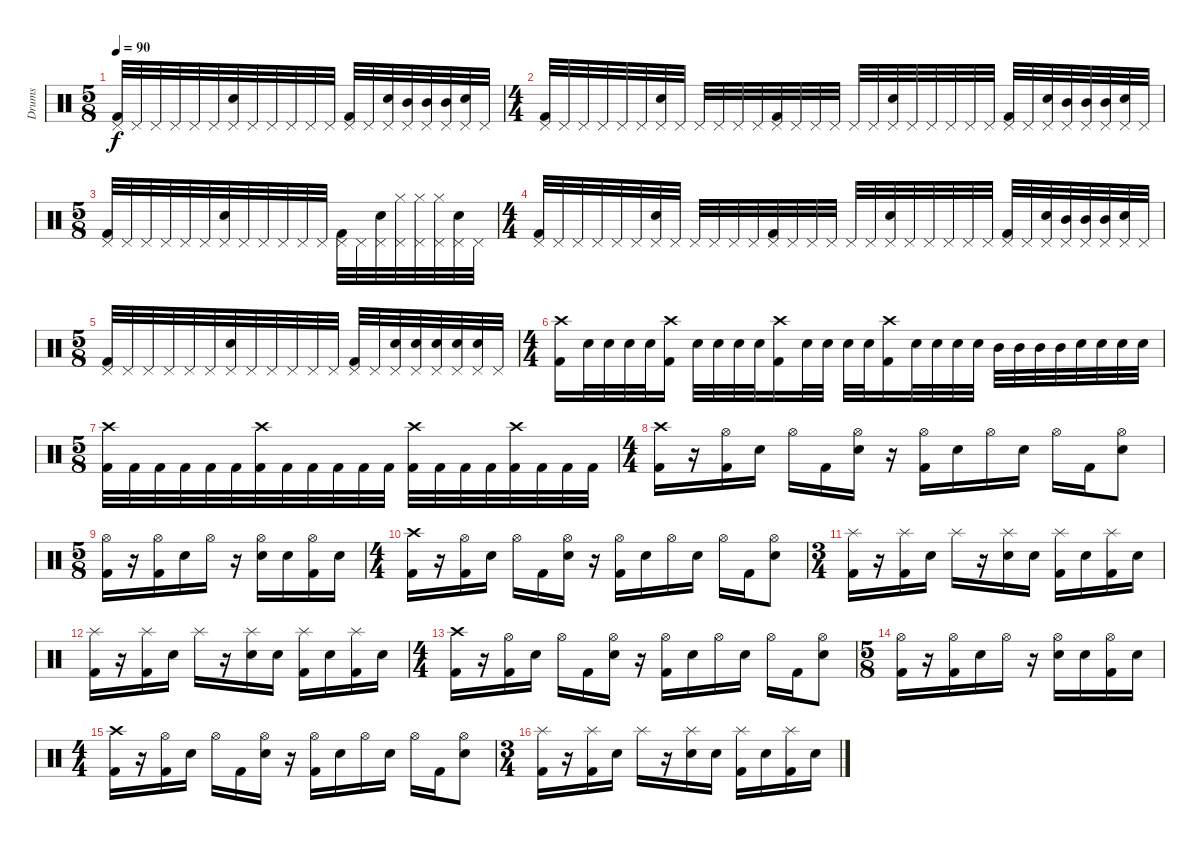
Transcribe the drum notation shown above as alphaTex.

\track ("Drums" "Drums") {instrument percussion}
\staff {score}
\articulation defaults
\ts (5 8)
\tempo 90
\clef neutral
\ks c
("Pedal Hi-Hat (hit)" "Kick (hit) 2").32{dy f} "Pedal Hi-Hat (hit)".32 "Pedal Hi-Hat (hit)".32 "Pedal Hi-Hat (hit)".32 "Pedal Hi-Hat (hit)".32 "Pedal Hi-Hat (hit)".32 ("Pedal Hi-Hat (hit)" "Electric Snare (hit)").32 "Pedal Hi-Hat (hit)".32 "Pedal Hi-Hat (hit)".32 "Pedal Hi-Hat (hit)".32 "Pedal Hi-Hat (hit)".32 "Pedal Hi-Hat (hit)".32 ("Pedal Hi-Hat (hit)" "Kick (hit) 2").32 "Pedal Hi-Hat (hit)".32 ("Pedal Hi-Hat (hit)" "Electric Snare (hit)").32 ("Pedal Hi-Hat (hit)" "Mid Tom (hit)").32 ("Pedal Hi-Hat (hit)" "Mid Tom (hit)").32 ("Pedal Hi-Hat (hit)" "Mid Tom (hit)").32 ("Pedal Hi-Hat (hit)" "Electric Snare (hit)").32 "Pedal Hi-Hat (hit)".32 |
\ts (4 4)
("Pedal Hi-Hat (hit)" "Kick (hit) 2").32 "Pedal Hi-Hat (hit)".32 "Pedal Hi-Hat (hit)".32 "Pedal Hi-Hat (hit)".32 "Pedal Hi-Hat (hit)".32 "Pedal Hi-Hat (hit)".32 ("Pedal Hi-Hat (hit)" "Electric Snare (hit)").32 "Pedal Hi-Hat (hit)".32 "Pedal Hi-Hat (hit)".32 "Pedal Hi-Hat (hit)".32 "Pedal Hi-Hat (hit)".32 "Pedal Hi-Hat (hit)".32 ("Pedal Hi-Hat (hit)" "Kick (hit) 2").32 "Pedal Hi-Hat (hit)".32 "Pedal Hi-Hat (hit)".32 "Pedal Hi-Hat (hit)".32 "Pedal Hi-Hat (hit)".32 "Pedal Hi-Hat (hit)".32 ("Pedal Hi-Hat (hit)" "Electric Snare (hit)").32 "Pedal Hi-Hat (hit)".32 "Pedal Hi-Hat (hit)".32 "Pedal Hi-Hat (hit)".32 "Pedal Hi-Hat (hit)".32 "Pedal Hi-Hat (hit)".32 ("Pedal Hi-Hat (hit)" "Kick (hit) 2").32 "Pedal Hi-Hat (hit)".32 ("Pedal Hi-Hat (hit)" "Electric Snare (hit)").32 ("Pedal Hi-Hat (hit)" "Mid Tom (hit)").32 ("Pedal Hi-Hat (hit)" "Mid Tom (hit)").32 ("Pedal Hi-Hat (hit)" "Mid Tom (hit)").32 ("Pedal Hi-Hat (hit)" "Electric Snare (hit)").32 "Pedal Hi-Hat (hit)".32 |
\ts (5 8)
("Pedal Hi-Hat (hit)" "Kick (hit) 2").32 "Pedal Hi-Hat (hit)".32 "Pedal Hi-Hat (hit)".32 "Pedal Hi-Hat (hit)".32 "Pedal Hi-Hat (hit)".32 "Pedal Hi-Hat (hit)".32 ("Pedal Hi-Hat (hit)" "Electric Snare (hit)").32 "Pedal Hi-Hat (hit)".32 "Pedal Hi-Hat (hit)".32 "Pedal Hi-Hat (hit)".32 "Pedal Hi-Hat (hit)".32 "Pedal Hi-Hat (hit)".32 ("Pedal Hi-Hat (hit)" "Kick (hit) 2").32 "Pedal Hi-Hat (hit)".32 ("Pedal Hi-Hat (hit)" "Electric Snare (hit)").32 ("Pedal Hi-Hat (hit)" "Hi-Hat (closed)").32 ("Pedal Hi-Hat (hit)" "Hi-Hat (closed)").32 ("Pedal Hi-Hat (hit)" "Hi-Hat (closed)").32 ("Pedal Hi-Hat (hit)" "Electric Snare (hit)").32 "Pedal Hi-Hat (hit)".32 |
\ts (4 4)
("Pedal Hi-Hat (hit)" "Kick (hit) 2").32 "Pedal Hi-Hat (hit)".32 "Pedal Hi-Hat (hit)".32 "Pedal Hi-Hat (hit)".32 "Pedal Hi-Hat (hit)".32 "Pedal Hi-Hat (hit)".32 ("Pedal Hi-Hat (hit)" "Electric Snare (hit)").32 "Pedal Hi-Hat (hit)".32 "Pedal Hi-Hat (hit)".32 "Pedal Hi-Hat (hit)".32 "Pedal Hi-Hat (hit)".32 "Pedal Hi-Hat (hit)".32 ("Pedal Hi-Hat (hit)" "Kick (hit) 2").32 "Pedal Hi-Hat (hit)".32 "Pedal Hi-Hat (hit)".32 "Pedal Hi-Hat (hit)".32 "Pedal Hi-Hat (hit)".32 "Pedal Hi-Hat (hit)".32 ("Pedal Hi-Hat (hit)" "Electric Snare (hit)").32 "Pedal Hi-Hat (hit)".32 "Pedal Hi-Hat (hit)".32 "Pedal Hi-Hat (hit)".32 "Pedal Hi-Hat (hit)".32 "Pedal Hi-Hat (hit)".32 ("Pedal Hi-Hat (hit)" "Kick (hit) 2").32 "Pedal Hi-Hat (hit)".32 ("Pedal Hi-Hat (hit)" "Electric Snare (hit)").32 ("Pedal Hi-Hat (hit)" "Mid Tom (hit)").32 ("Pedal Hi-Hat (hit)" "Mid Tom (hit)").32 ("Pedal Hi-Hat (hit)" "Mid Tom (hit)").32 ("Pedal Hi-Hat (hit)" "Electric Snare (hit)").32 "Pedal Hi-Hat (hit)".32 |
\ts (5 8)
("Pedal Hi-Hat (hit)" "Kick (hit) 2").32 "Pedal Hi-Hat (hit)".32 "Pedal Hi-Hat (hit)".32 "Pedal Hi-Hat (hit)".32 "Pedal Hi-Hat (hit)".32 "Pedal Hi-Hat (hit)".32 ("Pedal Hi-Hat (hit)" "Electric Snare (hit)").32 "Pedal Hi-Hat (hit)".32 "Pedal Hi-Hat (hit)".32 "Pedal Hi-Hat (hit)".32 "Pedal Hi-Hat (hit)".32 "Pedal Hi-Hat (hit)".32 ("Pedal Hi-Hat (hit)" "Kick (hit) 2").32 "Pedal Hi-Hat (hit)".32 ("Pedal Hi-Hat (hit)" "Electric Snare (hit)").32 ("Pedal Hi-Hat (hit)" "Electric Snare (hit)").32 ("Pedal Hi-Hat (hit)" "Electric Snare (hit)").32 ("Pedal Hi-Hat (hit)" "Electric Snare (hit)").32 ("Pedal Hi-Hat (hit)" "Electric Snare (hit)").32 "Pedal Hi-Hat (hit)".32 |
\ts (4 4)
("Crash high (hit)" "Kick (hit) 2").16 "Electric Snare (hit)".32 "Electric Snare (hit)".32 "Electric Snare (hit)".32 "Electric Snare (hit)".32 ("Crash high (hit)" "Kick (hit) 2").16 "Electric Snare (hit)".32 "Electric Snare (hit)".32 "Electric Snare (hit)".32 "Electric Snare (hit)".32 ("Crash high (hit)" "Kick (hit) 2").16 "Electric Snare (hit)".32 "Electric Snare (hit)".32 "Electric Snare (hit)".32 "Electric Snare (hit)".32 ("Crash high (hit)" "Kick (hit) 2").16 "Electric Snare (hit)".32 "Electric Snare (hit)".32 "Electric Snare (hit)".32 "Electric Snare (hit)".32 "Mid Tom (hit)".32 "Mid Tom (hit)".32 "Mid Tom (hit)".32 "Mid Tom (hit)".32 "Electric Snare (hit)".32 "Electric Snare (hit)".32 "Electric Snare (hit)".32 "Electric Snare (hit)".32 |
\ts (5 8)
("Crash high (hit)" "Kick (hit) 2").32 "Kick (hit) 2".32 "Kick (hit) 2".32 "Kick (hit) 2".32 "Kick (hit) 2".32 "Kick (hit) 2".32 ("Crash high (hit)" "Kick (hit) 2").32 "Kick (hit) 2".32 "Kick (hit) 2".32 "Kick (hit) 2".32 "Kick (hit) 2".32 "Kick (hit) 2".32 ("Crash high (hit)" "Kick (hit) 2").32 "Kick (hit) 2".32 "Kick (hit) 2".32 "Kick (hit) 2".32 ("Crash high (hit)" "Kick (hit) 2").32 "Kick (hit) 2".32 "Kick (hit) 2".32 "Kick (hit) 2".32 |
\ts (4 4)
("Kick (hit) 2" "Crash high (hit)").16 r.16 ("Hi-Hat (open)" "Kick (hit) 2").16 "Electric Snare (hit)".16 "Hi-Hat (open)".16 "Kick (hit) 2".16 ("Hi-Hat (open)" "Electric Snare (hit)").16 r.16 ("Hi-Hat (open)" "Kick (hit) 2").16 "Electric Snare (hit)".16 "Hi-Hat (open)".16 "Electric Snare (hit)".16 "Hi-Hat (open)".16 "Kick (hit) 2".16 ("Hi-Hat (open)" "Electric Snare (hit)").8 |
\ts (5 8)
("Hi-Hat (open)" "Kick (hit) 2").16 r.16 ("Hi-Hat (open)" "Kick (hit) 2").16 "Electric Snare (hit)".16 "Hi-Hat (open)".16 r.16 ("Hi-Hat (open)" "Electric Snare (hit)").16 "Electric Snare (hit)".16 ("Hi-Hat (open)" "Kick (hit) 2").16 "Electric Snare (hit)".16 |
\ts (4 4)
("Kick (hit) 2" "Crash high (hit)").16 r.16 ("Hi-Hat (open)" "Kick (hit) 2").16 "Electric Snare (hit)".16 "Hi-Hat (open)".16 "Kick (hit) 2".16 ("Hi-Hat (open)" "Electric Snare (hit)").16 r.16 ("Hi-Hat (open)" "Kick (hit) 2").16 "Electric Snare (hit)".16 "Hi-Hat (open)".16 "Electric Snare (hit)".16 "Hi-Hat (open)".16 "Kick (hit) 2".16 ("Hi-Hat (open)" "Electric Snare (hit)").8 |
\ts (3 4)
("Splash (hit)" "Kick (hit) 2").16 r.16 ("Splash (hit)" "Kick (hit) 2").16 "Electric Snare (hit)".16 "Splash (hit)".16 r.16 ("Splash (hit)" "Electric Snare (hit)").16 "Electric Snare (hit)".16 ("Splash (hit)" "Kick (hit) 2").16 "Electric Snare (hit)".16 ("Splash (hit)" "Kick (hit) 2").16 "Electric Snare (hit)".16 |
("Splash (hit)" "Kick (hit) 2").16 r.16 ("Splash (hit)" "Kick (hit) 2").16 "Electric Snare (hit)".16 "Splash (hit)".16 r.16 ("Splash (hit)" "Electric Snare (hit)").16 "Electric Snare (hit)".16 ("Splash (hit)" "Kick (hit) 2").16 "Electric Snare (hit)".16 ("Splash (hit)" "Kick (hit) 2").16 "Electric Snare (hit)".16 |
\ts (4 4)
("Kick (hit) 2" "Crash high (hit)").16 r.16 ("Hi-Hat (open)" "Kick (hit) 2").16 "Electric Snare (hit)".16 "Hi-Hat (open)".16 "Kick (hit) 2".16 ("Hi-Hat (open)" "Electric Snare (hit)").16 r.16 ("Hi-Hat (open)" "Kick (hit) 2").16 "Electric Snare (hit)".16 "Hi-Hat (open)".16 "Electric Snare (hit)".16 "Hi-Hat (open)".16 "Kick (hit) 2".16 ("Hi-Hat (open)" "Electric Snare (hit)").8 |
\ts (5 8)
("Hi-Hat (open)" "Kick (hit) 2").16 r.16 ("Hi-Hat (open)" "Kick (hit) 2").16 "Electric Snare (hit)".16 "Hi-Hat (open)".16 r.16 ("Hi-Hat (open)" "Electric Snare (hit)").16 "Electric Snare (hit)".16 ("Hi-Hat (open)" "Kick (hit) 2").16 "Electric Snare (hit)".16 |
\ts (4 4)
("Kick (hit) 2" "Crash high (hit)").16 r.16 ("Hi-Hat (open)" "Kick (hit) 2").16 "Electric Snare (hit)".16 "Hi-Hat (open)".16 "Kick (hit) 2".16 ("Hi-Hat (open)" "Electric Snare (hit)").16 r.16 ("Hi-Hat (open)" "Kick (hit) 2").16 "Electric Snare (hit)".16 "Hi-Hat (open)".16 "Electric Snare (hit)".16 "Hi-Hat (open)".16 "Kick (hit) 2".16 ("Hi-Hat (open)" "Electric Snare (hit)").8 |
\ts (3 4)
("Splash (hit)" "Kick (hit) 2").16 r.16 ("Splash (hit)" "Kick (hit) 2").16 "Electric Snare (hit)".16 "Splash (hit)".16 r.16 ("Splash (hit)" "Electric Snare (hit)").16 "Electric Snare (hit)".16 ("Splash (hit)" "Kick (hit) 2").16 "Electric Snare (hit)".16 ("Splash (hit)" "Kick (hit) 2").16 "Electric Snare (hit)".16
